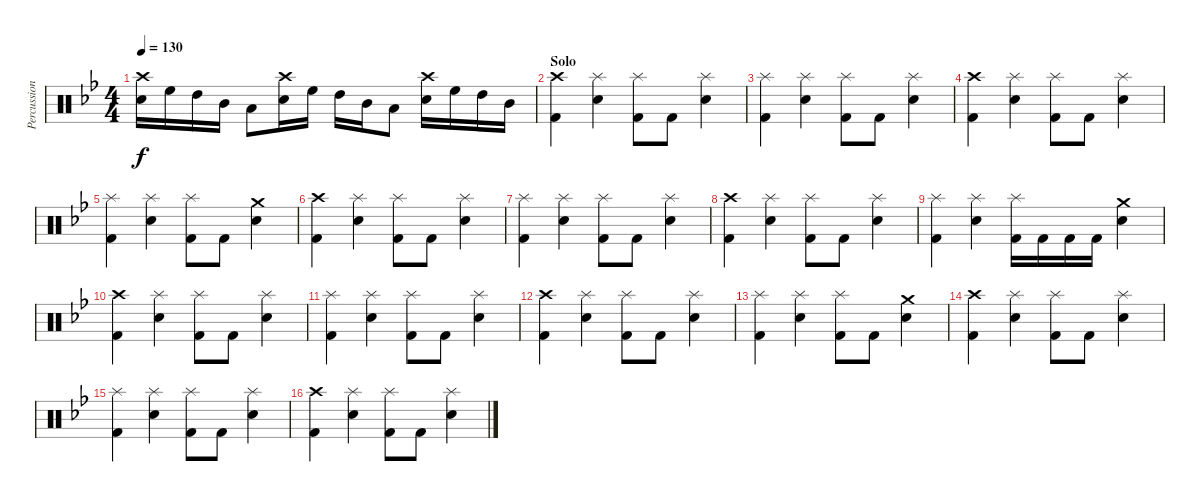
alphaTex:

\track ("Percussions" "Percussion") {instrument percussion}
\staff {score}
\articulation defaults
\ts (4 4)
\tempo 130
\clef neutral
\ks gminor
("Crash high (hit)" "Electric Snare (hit)").16{dy f} "High Floor Tom (hit)".16 "High Tom (hit)".16 "Mid Tom (hit)".16 "Low Tom (hit)".8 ("Crash high (hit)" "Electric Snare (hit)").16 "High Floor Tom (hit)".16 "High Tom (hit)".16 "Mid Tom (hit)".16 "Low Tom (hit)".8 ("Crash high (hit)" "Electric Snare (hit)").16 "High Floor Tom (hit)".16 "High Tom (hit)".16 "Mid Tom (hit)".16 |
\section ("" "Solo")
("Crash high (hit)" "Kick (hit) 2").4 ("Splash (hit)" "Electric Snare (hit)").4 ("Splash (hit)" "Kick (hit) 2").8 "Kick (hit) 2".8 ("Splash (hit)" "Electric Snare (hit)").4 |
("Splash (hit)" "Kick (hit) 2").4 ("Splash (hit)" "Electric Snare (hit)").4 ("Splash (hit)" "Kick (hit) 2").8 "Kick (hit) 2".8 ("Splash (hit)" "Electric Snare (hit)").4 |
("Crash high (hit)" "Kick (hit) 2").4 ("Splash (hit)" "Electric Snare (hit)").4 ("Splash (hit)" "Kick (hit) 2").8 "Kick (hit) 2".8 ("Splash (hit)" "Electric Snare (hit)").4 |
("Splash (hit)" "Kick (hit) 2").4 ("Splash (hit)" "Electric Snare (hit)").4 ("Splash (hit)" "Kick (hit) 2").8 "Kick (hit) 2".8 ("Crash medium (hit)" "Electric Snare (hit)").4 |
("Crash high (hit)" "Kick (hit) 2").4 ("Splash (hit)" "Electric Snare (hit)").4 ("Splash (hit)" "Kick (hit) 2").8 "Kick (hit) 2".8 ("Splash (hit)" "Electric Snare (hit)").4 |
("Splash (hit)" "Kick (hit) 2").4 ("Splash (hit)" "Electric Snare (hit)").4 ("Splash (hit)" "Kick (hit) 2").8 "Kick (hit) 2".8 ("Splash (hit)" "Electric Snare (hit)").4 |
("Crash high (hit)" "Kick (hit) 2").4 ("Splash (hit)" "Electric Snare (hit)").4 ("Splash (hit)" "Kick (hit) 2").8 "Kick (hit) 2".8 ("Splash (hit)" "Electric Snare (hit)").4 |
("Splash (hit)" "Kick (hit) 2").4 ("Splash (hit)" "Electric Snare (hit)").4 ("Splash (hit)" "Kick (hit) 2").16 "Kick (hit) 2".16 "Kick (hit) 2".16 "Kick (hit) 2".16 ("Crash medium (hit)" "Electric Snare (hit)").4 |
("Crash high (hit)" "Kick (hit) 2").4 ("Splash (hit)" "Electric Snare (hit)").4 ("Splash (hit)" "Kick (hit) 2").8 "Kick (hit) 2".8 ("Splash (hit)" "Electric Snare (hit)").4 |
("Splash (hit)" "Kick (hit) 2").4 ("Splash (hit)" "Electric Snare (hit)").4 ("Splash (hit)" "Kick (hit) 2").8 "Kick (hit) 2".8 ("Splash (hit)" "Electric Snare (hit)").4 |
("Crash high (hit)" "Kick (hit) 2").4 ("Splash (hit)" "Electric Snare (hit)").4 ("Splash (hit)" "Kick (hit) 2").8 "Kick (hit) 2".8 ("Splash (hit)" "Electric Snare (hit)").4 |
("Splash (hit)" "Kick (hit) 2").4 ("Splash (hit)" "Electric Snare (hit)").4 ("Splash (hit)" "Kick (hit) 2").8 "Kick (hit) 2".8 ("Crash medium (hit)" "Electric Snare (hit)").4 |
("Crash high (hit)" "Kick (hit) 2").4 ("Splash (hit)" "Electric Snare (hit)").4 ("Splash (hit)" "Kick (hit) 2").8 "Kick (hit) 2".8 ("Splash (hit)" "Electric Snare (hit)").4 |
("Splash (hit)" "Kick (hit) 2").4 ("Splash (hit)" "Electric Snare (hit)").4 ("Splash (hit)" "Kick (hit) 2").8 "Kick (hit) 2".8 ("Splash (hit)" "Electric Snare (hit)").4 |
("Crash high (hit)" "Kick (hit) 2").4 ("Splash (hit)" "Electric Snare (hit)").4 ("Splash (hit)" "Kick (hit) 2").8 "Kick (hit) 2".8 ("Splash (hit)" "Electric Snare (hit)").4
